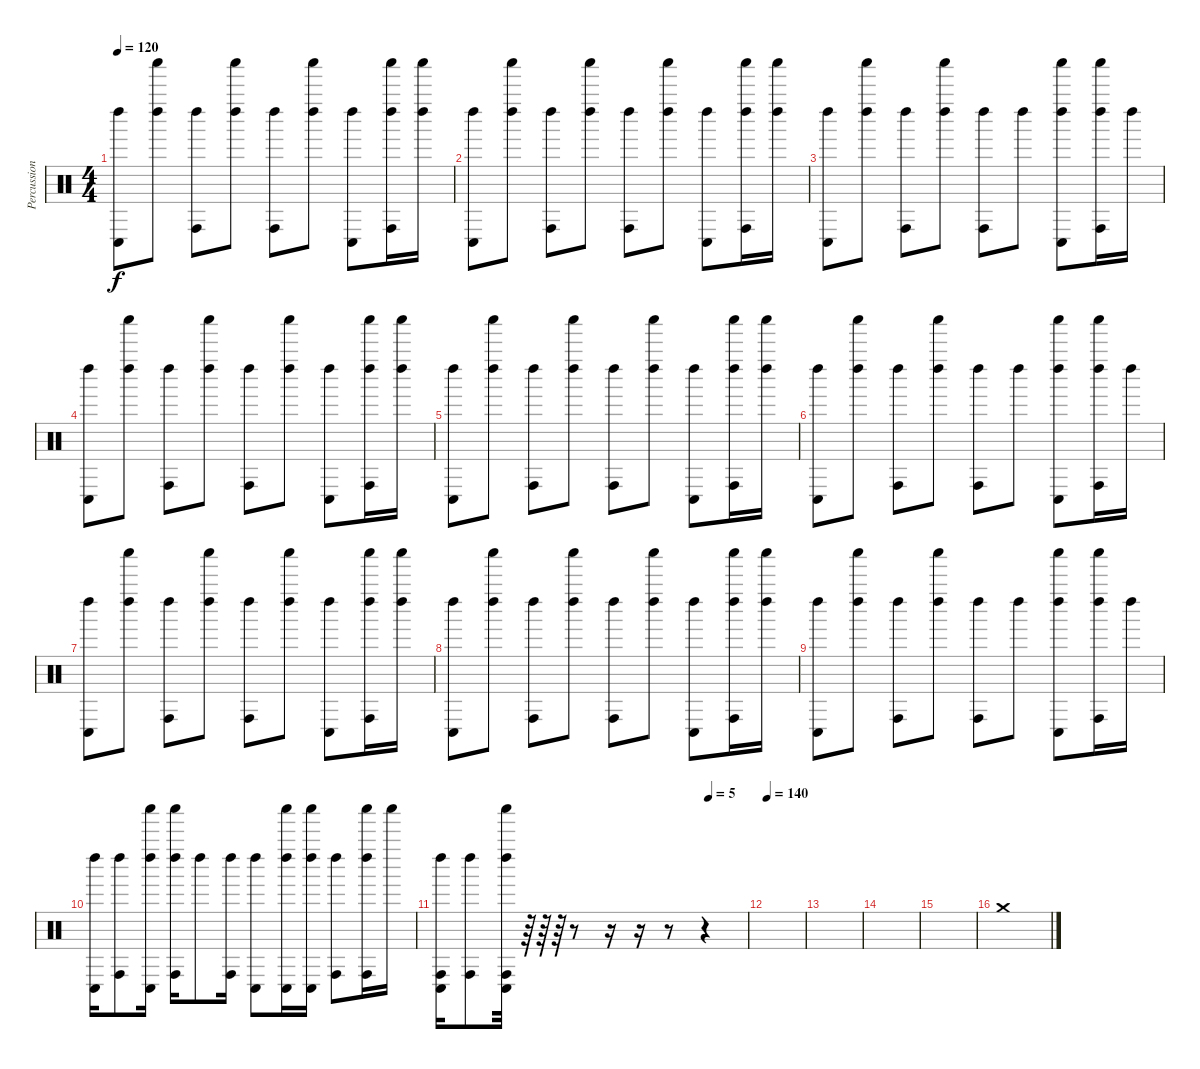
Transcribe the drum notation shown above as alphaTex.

\track ("Percussion" "Percussion") {instrument percussion}
\staff {score}
\articulation defaults
\ts (4 4)
\tempo 120
\clef neutral
\ks c
("Conga low (hit)" "Left Maraca (hit)").8{dy f} ("Left Maraca (hit)" "Shaker (hit)").8 ("Conga high (hit)" "Left Maraca (hit)").8 ("Left Maraca (hit)" "Shaker (hit)").8 ("Conga high (hit)" "Left Maraca (hit)").8 ("Left Maraca (hit)" "Shaker (hit)").8 ("Conga low (hit)" "Left Maraca (hit)").8 ("Conga high (hit)" "Left Maraca (hit)" "Shaker (hit)").16 ("Left Maraca (hit)" "Shaker (hit)").16 |
("Conga low (hit)" "Left Maraca (hit)").8 ("Left Maraca (hit)" "Shaker (hit)").8 ("Conga high (hit)" "Left Maraca (hit)").8 ("Left Maraca (hit)" "Shaker (hit)").8 ("Conga high (hit)" "Left Maraca (hit)").8 ("Left Maraca (hit)" "Shaker (hit)").8 ("Conga low (hit)" "Left Maraca (hit)").8 ("Conga high (hit)" "Left Maraca (hit)" "Shaker (hit)").16 ("Left Maraca (hit)" "Shaker (hit)").16 |
("Conga low (hit)" "Left Maraca (hit)").8 ("Left Maraca (hit)" "Shaker (hit)").8 ("Conga high (hit)" "Left Maraca (hit)").8 ("Left Maraca (hit)" "Shaker (hit)").8 ("Conga high (hit)" "Left Maraca (hit)").8 "Left Maraca (hit)".8 ("Conga low (hit)" "Left Maraca (hit)" "Shaker (hit)").8 ("Conga high (hit)" "Left Maraca (hit)" "Shaker (hit)").16 "Left Maraca (hit)".16 |
("Conga low (hit)" "Left Maraca (hit)").8 ("Left Maraca (hit)" "Shaker (hit)").8 ("Conga high (hit)" "Left Maraca (hit)").8 ("Left Maraca (hit)" "Shaker (hit)").8 ("Conga high (hit)" "Left Maraca (hit)").8 ("Left Maraca (hit)" "Shaker (hit)").8 ("Conga low (hit)" "Left Maraca (hit)").8 ("Conga high (hit)" "Left Maraca (hit)" "Shaker (hit)").16 ("Left Maraca (hit)" "Shaker (hit)").16 |
("Conga low (hit)" "Left Maraca (hit)").8 ("Left Maraca (hit)" "Shaker (hit)").8 ("Conga high (hit)" "Left Maraca (hit)").8 ("Left Maraca (hit)" "Shaker (hit)").8 ("Conga high (hit)" "Left Maraca (hit)").8 ("Left Maraca (hit)" "Shaker (hit)").8 ("Conga low (hit)" "Left Maraca (hit)").8 ("Conga high (hit)" "Left Maraca (hit)" "Shaker (hit)").16 ("Left Maraca (hit)" "Shaker (hit)").16 |
("Conga low (hit)" "Left Maraca (hit)").8 ("Left Maraca (hit)" "Shaker (hit)").8 ("Conga high (hit)" "Left Maraca (hit)").8 ("Left Maraca (hit)" "Shaker (hit)").8 ("Conga high (hit)" "Left Maraca (hit)").8 "Left Maraca (hit)".8 ("Conga low (hit)" "Left Maraca (hit)" "Shaker (hit)").8 ("Conga high (hit)" "Left Maraca (hit)" "Shaker (hit)").16 "Left Maraca (hit)".16 |
("Conga low (hit)" "Left Maraca (hit)").8 ("Left Maraca (hit)" "Shaker (hit)").8 ("Conga high (hit)" "Left Maraca (hit)").8 ("Left Maraca (hit)" "Shaker (hit)").8 ("Conga high (hit)" "Left Maraca (hit)").8 ("Left Maraca (hit)" "Shaker (hit)").8 ("Conga low (hit)" "Left Maraca (hit)").8 ("Conga high (hit)" "Left Maraca (hit)" "Shaker (hit)").16 ("Left Maraca (hit)" "Shaker (hit)").16 |
("Conga low (hit)" "Left Maraca (hit)").8 ("Left Maraca (hit)" "Shaker (hit)").8 ("Conga high (hit)" "Left Maraca (hit)").8 ("Left Maraca (hit)" "Shaker (hit)").8 ("Conga high (hit)" "Left Maraca (hit)").8 ("Left Maraca (hit)" "Shaker (hit)").8 ("Conga low (hit)" "Left Maraca (hit)").8 ("Conga high (hit)" "Left Maraca (hit)" "Shaker (hit)").16 ("Left Maraca (hit)" "Shaker (hit)").16 |
("Conga low (hit)" "Left Maraca (hit)").8 ("Left Maraca (hit)" "Shaker (hit)").8 ("Conga high (hit)" "Left Maraca (hit)").8 ("Left Maraca (hit)" "Shaker (hit)").8 ("Conga high (hit)" "Left Maraca (hit)").8 "Left Maraca (hit)".8 ("Conga low (hit)" "Left Maraca (hit)" "Shaker (hit)").8 ("Conga high (hit)" "Left Maraca (hit)" "Shaker (hit)").16 "Left Maraca (hit)".16 |
("Conga low (hit)" "Left Maraca (hit)").16 ("Conga high (hit)" "Left Maraca (hit)").8 ("Conga low (hit)" "Left Maraca (hit)" "Shaker (hit)").16 ("Conga high (hit)" "Left Maraca (hit)" "Shaker (hit)").16 "Left Maraca (hit)".8 ("Conga high (hit)" "Left Maraca (hit)").16 ("Conga low (hit)" "Left Maraca (hit)").8 ("Conga low (hit)" "Left Maraca (hit)" "Shaker (hit)").16 ("Conga low (hit)" "Left Maraca (hit)" "Shaker (hit)").16 ("Conga high (hit)" "Left Maraca (hit)").8 ("Conga high (hit)" "Left Maraca (hit)" "Shaker (hit)").16 "Shaker (hit)".16 |
\tempo (5 0.875)
("Conga low (hit)" "Left Maraca (hit)" "Conga high (hit)").16 ("Conga high (hit)" "Left Maraca (hit)").8 ("Conga low (hit)" "Left Maraca (hit)" "Shaker (hit)" "Conga high (hit)").32 r.64 r.64 r.64 r.8 r.16 r.16 r.8 r.4 |
\tempo 140
|
|
|
|
"Crash medium (hit)".1
